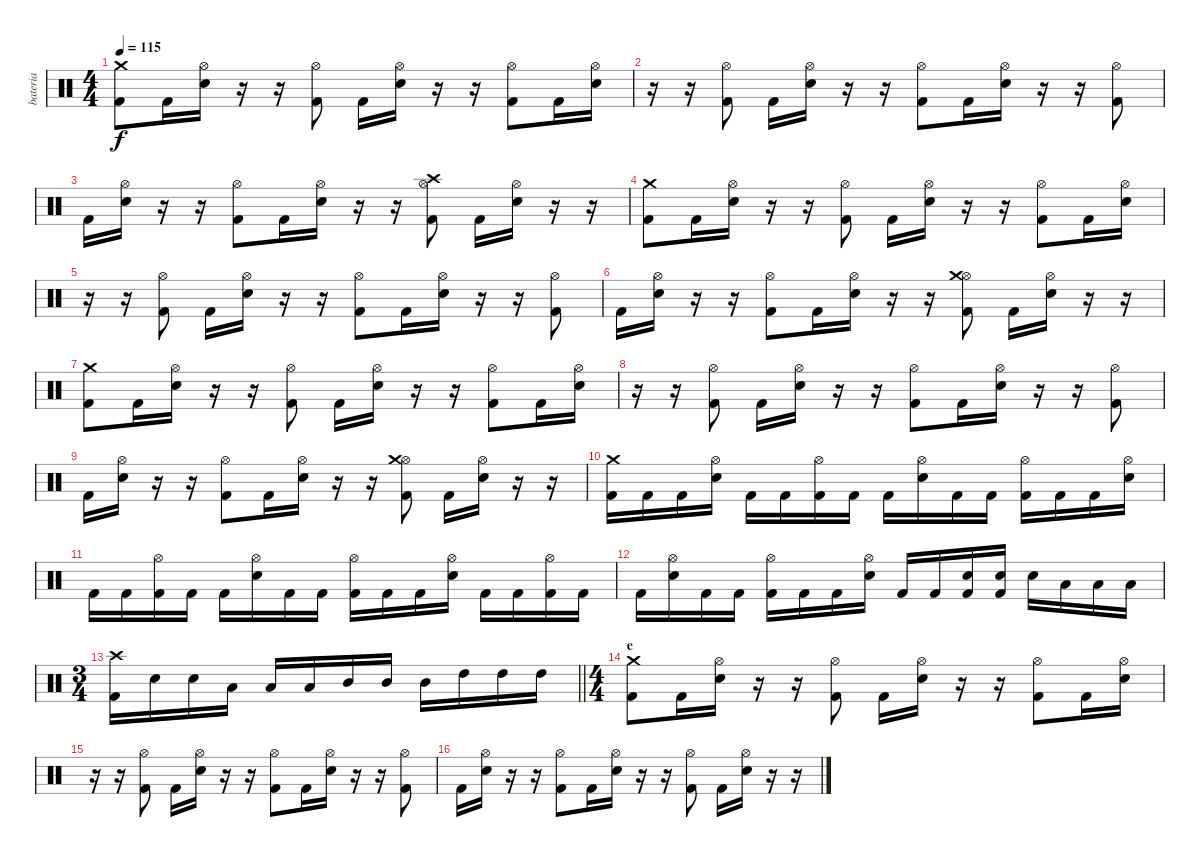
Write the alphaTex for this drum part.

\track ("bateria" "bateria") {mute instrument percussion}
\staff {score}
\articulation defaults
\ts (4 4)
\tempo 115
\clef neutral
\ks c
("Kick (hit) 2" "Crash medium (hit)").8{dy f} "Kick (hit) 2".16 ("Electric Snare (hit)" "Hi-Hat (open)").16 r.16 r.16 ("Kick (hit) 2" "Hi-Hat (open)").8 "Kick (hit) 2".16 ("Hi-Hat (open)" "Electric Snare (hit)").16 r.16 r.16 ("Kick (hit) 2" "Hi-Hat (open)").8 "Kick (hit) 2".16 ("Hi-Hat (open)" "Electric Snare (hit)").16 |
r.16 r.16 ("Kick (hit) 2" "Hi-Hat (open)").8 "Kick (hit) 2".16 ("Hi-Hat (open)" "Electric Snare (hit)").16 r.16 r.16 ("Kick (hit) 2" "Hi-Hat (open)").8 "Kick (hit) 2".16 ("Hi-Hat (open)" "Electric Snare (hit)").16 r.16 r.16 ("Kick (hit) 2" "Hi-Hat (open)").8 |
"Kick (hit) 2".16 ("Electric Snare (hit)" "Hi-Hat (open)").16 r.16 r.16 ("Kick (hit) 2" "Hi-Hat (open)").8 "Kick (hit) 2".16 ("Hi-Hat (open)" "Electric Snare (hit)").16 r.16 r.16 ("Kick (hit) 2" "Hi-Hat (open)" "Crash high (hit)").8 "Kick (hit) 2".16 ("Hi-Hat (open)" "Electric Snare (hit)").16 r.16 r.16 |
("Kick (hit) 2" "Crash medium (hit)").8 "Kick (hit) 2".16 ("Electric Snare (hit)" "Hi-Hat (open)").16 r.16 r.16 ("Kick (hit) 2" "Hi-Hat (open)").8 "Kick (hit) 2".16 ("Hi-Hat (open)" "Electric Snare (hit)").16 r.16 r.16 ("Kick (hit) 2" "Hi-Hat (open)").8 "Kick (hit) 2".16 ("Hi-Hat (open)" "Electric Snare (hit)").16 |
r.16 r.16 ("Kick (hit) 2" "Hi-Hat (open)").8 "Kick (hit) 2".16 ("Hi-Hat (open)" "Electric Snare (hit)").16 r.16 r.16 ("Kick (hit) 2" "Hi-Hat (open)").8 "Kick (hit) 2".16 ("Hi-Hat (open)" "Electric Snare (hit)").16 r.16 r.16 ("Kick (hit) 2" "Hi-Hat (open)").8 |
"Kick (hit) 2".16 ("Electric Snare (hit)" "Hi-Hat (open)").16 r.16 r.16 ("Kick (hit) 2" "Hi-Hat (open)").8 "Kick (hit) 2".16 ("Hi-Hat (open)" "Electric Snare (hit)").16 r.16 r.16 ("Kick (hit) 2" "Hi-Hat (open)" "Crash medium (hit)").8 "Kick (hit) 2".16 ("Hi-Hat (open)" "Electric Snare (hit)").16 r.16 r.16 |
("Kick (hit) 2" "Crash medium (hit)").8 "Kick (hit) 2".16 ("Electric Snare (hit)" "Hi-Hat (open)").16 r.16 r.16 ("Kick (hit) 2" "Hi-Hat (open)").8 "Kick (hit) 2".16 ("Hi-Hat (open)" "Electric Snare (hit)").16 r.16 r.16 ("Kick (hit) 2" "Hi-Hat (open)").8 "Kick (hit) 2".16 ("Hi-Hat (open)" "Electric Snare (hit)").16 |
r.16 r.16 ("Kick (hit) 2" "Hi-Hat (open)").8 "Kick (hit) 2".16 ("Hi-Hat (open)" "Electric Snare (hit)").16 r.16 r.16 ("Kick (hit) 2" "Hi-Hat (open)").8 "Kick (hit) 2".16 ("Hi-Hat (open)" "Electric Snare (hit)").16 r.16 r.16 ("Kick (hit) 2" "Hi-Hat (open)").8 |
"Kick (hit) 2".16 ("Electric Snare (hit)" "Hi-Hat (open)").16 r.16 r.16 ("Kick (hit) 2" "Hi-Hat (open)").8 "Kick (hit) 2".16 ("Hi-Hat (open)" "Electric Snare (hit)").16 r.16 r.16 ("Kick (hit) 2" "Hi-Hat (open)" "Crash medium (hit)").8 "Kick (hit) 2".16 ("Hi-Hat (open)" "Electric Snare (hit)").16 r.16 r.16 |
("Kick (hit) 2" "Crash medium (hit)").16 "Kick (hit) 2".16 "Kick (hit) 2".16 ("Electric Snare (hit)" "Hi-Hat (open)").16 "Kick (hit) 2".16 "Kick (hit) 2".16 ("Kick (hit) 2" "Hi-Hat (open)").16 "Kick (hit) 2".16 "Kick (hit) 2".16 ("Hi-Hat (open)" "Electric Snare (hit)").16 "Kick (hit) 2".16 "Kick (hit) 2".16 ("Kick (hit) 2" "Hi-Hat (open)").16 "Kick (hit) 2".16 "Kick (hit) 2".16 ("Hi-Hat (open)" "Electric Snare (hit)").16 |
"Kick (hit) 2".16 "Kick (hit) 2".16 ("Kick (hit) 2" "Hi-Hat (open)").16 "Kick (hit) 2".16 "Kick (hit) 2".16 ("Hi-Hat (open)" "Electric Snare (hit)").16 "Kick (hit) 2".16 "Kick (hit) 2".16 ("Kick (hit) 2" "Hi-Hat (open)").16 "Kick (hit) 2".16 "Kick (hit) 2".16 ("Hi-Hat (open)" "Electric Snare (hit)").16 "Kick (hit) 2".16 "Kick (hit) 2".16 ("Kick (hit) 2" "Hi-Hat (open)").16 "Kick (hit) 2".16 |
"Kick (hit) 2".16 ("Hi-Hat (open)" "Electric Snare (hit)").16 "Kick (hit) 2".16 "Kick (hit) 2".16 ("Kick (hit) 2" "Hi-Hat (open)").16 "Kick (hit) 2".16 "Kick (hit) 2".16 ("Hi-Hat (open)" "Electric Snare (hit)").16 "Kick (hit) 2".16 "Kick (hit) 2".16 ("Kick (hit) 2" "Electric Snare (hit)").16 ("Kick (hit) 2" "Electric Snare (hit)").16 "Electric Snare (hit)".16 "Low Tom (hit)".16 "Low Tom (hit)".16 "Low Tom (hit)".16 |
\ts (3 4)
\barLineRight lightlight
("Crash high (hit)" "Kick (hit) 2").16 "Snare (hit) 2".16 "Snare (hit) 2".16 "Low Tom (hit)".16 "Low Tom (hit)".16 "Low Tom (hit)".16 "Mid Tom (hit)".16 "Mid Tom (hit)".16 "Mid Tom (hit)".16 "High Tom (hit)".16 "High Tom (hit)".16 "High Tom (hit)".16 |
\ts (4 4)
\section ("" "e")
("Kick (hit) 2" "Crash medium (hit)").8 "Kick (hit) 2".16 ("Electric Snare (hit)" "Hi-Hat (open)").16 r.16 r.16 ("Kick (hit) 2" "Hi-Hat (open)").8 "Kick (hit) 2".16 ("Hi-Hat (open)" "Electric Snare (hit)").16 r.16 r.16 ("Kick (hit) 2" "Hi-Hat (open)").8 "Kick (hit) 2".16 ("Hi-Hat (open)" "Electric Snare (hit)").16 |
r.16 r.16 ("Kick (hit) 2" "Hi-Hat (open)").8 "Kick (hit) 2".16 ("Hi-Hat (open)" "Electric Snare (hit)").16 r.16 r.16 ("Kick (hit) 2" "Hi-Hat (open)").8 "Kick (hit) 2".16 ("Hi-Hat (open)" "Electric Snare (hit)").16 r.16 r.16 ("Kick (hit) 2" "Hi-Hat (open)").8 |
"Kick (hit) 2".16 ("Electric Snare (hit)" "Hi-Hat (open)").16 r.16 r.16 ("Kick (hit) 2" "Hi-Hat (open)").8 "Kick (hit) 2".16 ("Hi-Hat (open)" "Electric Snare (hit)").16 r.16 r.16 ("Kick (hit) 2" "Hi-Hat (open)").8 "Kick (hit) 2".16 ("Hi-Hat (open)" "Electric Snare (hit)").16 r.16 r.16
